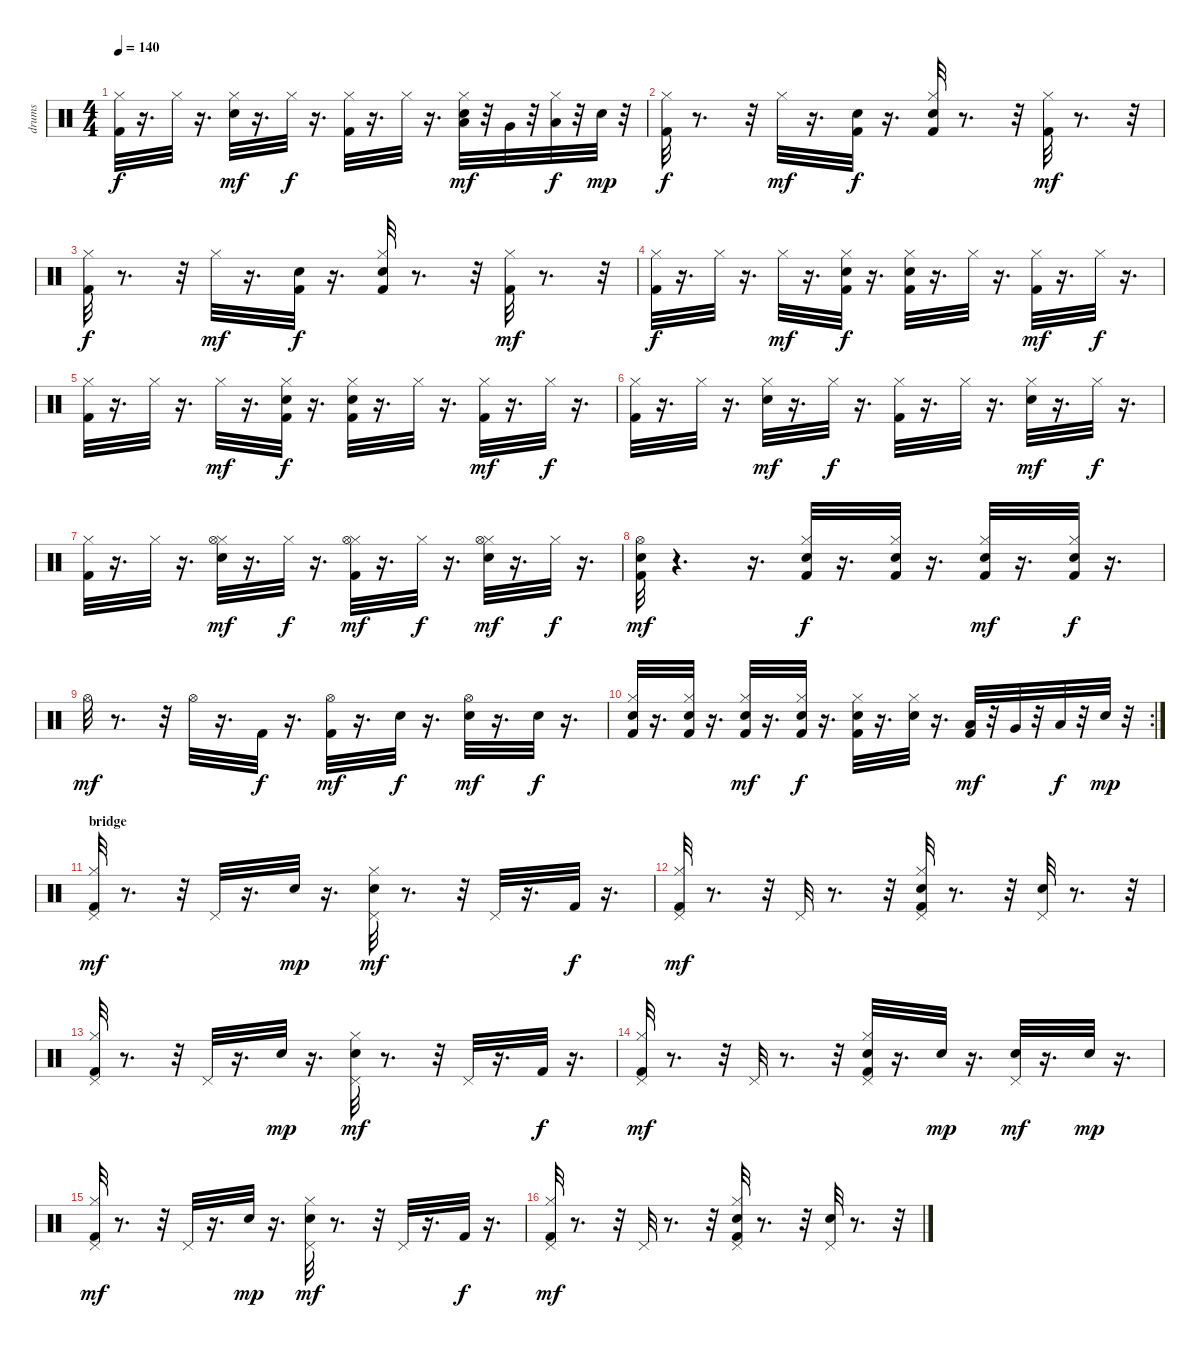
\track ("drums" "drums") {instrument percussion}
\staff {score}
\articulation defaults
\ts (4 4)
\tempo 140
\clef neutral
\ks c
("Kick (hit) 2" "Hi-Hat (closed)").32{dy f} r.16{d} "Hi-Hat (closed)".32 r.16{d} ("Snare (hit) 2" "Hi-Hat (closed)").32{dy mf} r.16{d} "Hi-Hat (closed)".32{dy f} r.16{d} ("Kick (hit) 2" "Hi-Hat (closed)").32 r.16{d} "Hi-Hat (closed)".32 r.16{d} ("Snare (hit) 2" "Hi-Hat (closed)" "Low Tom (hit)").32{dy mf} r.32 "Very Low Tom (hit)".32 r.32 ("Low Floor Tom (hit)" "Hi-Hat (closed)").32{dy f} r.32 "Electric Snare (hit)".32{dy mp} r.32 |
("Kick (hit) 2" "Hi-Hat (closed)").32{dy f} r.8{d} r.32 "Hi-Hat (closed)".32{dy mf} r.16{d} ("Kick (hit) 2" "Snare (hit) 2").32{dy f} r.16{d} ("Kick (hit) 2" "Snare (hit) 2" "Hi-Hat (closed)").32 r.8{d} r.32 ("Kick (hit) 2" "Hi-Hat (closed)").32{dy mf} r.8{d} r.32 |
("Kick (hit) 2" "Hi-Hat (closed)").32{dy f} r.8{d} r.32 "Hi-Hat (closed)".32{dy mf} r.16{d} ("Kick (hit) 2" "Snare (hit) 2").32{dy f} r.16{d} ("Kick (hit) 2" "Snare (hit) 2" "Hi-Hat (closed)").32 r.8{d} r.32 ("Kick (hit) 2" "Hi-Hat (closed)").32{dy mf} r.8{d} r.32 |
("Kick (hit) 2" "Hi-Hat (closed)").32{dy f} r.16{d} "Hi-Hat (closed)".32 r.16{d} "Hi-Hat (closed)".32{dy mf} r.16{d} ("Kick (hit) 2" "Snare (hit) 2" "Hi-Hat (closed)").32{dy f} r.16{d} ("Kick (hit) 2" "Snare (hit) 2" "Hi-Hat (closed)").32 r.16{d} "Hi-Hat (closed)".32 r.16{d} ("Kick (hit) 2" "Hi-Hat (closed)").32{dy mf} r.16{d} "Hi-Hat (closed)".32{dy f} r.16{d} |
("Kick (hit) 2" "Hi-Hat (closed)").32 r.16{d} "Hi-Hat (closed)".32 r.16{d} "Hi-Hat (closed)".32{dy mf} r.16{d} ("Kick (hit) 2" "Snare (hit) 2" "Hi-Hat (closed)").32{dy f} r.16{d} ("Kick (hit) 2" "Snare (hit) 2" "Hi-Hat (closed)").32 r.16{d} "Hi-Hat (closed)".32 r.16{d} ("Kick (hit) 2" "Hi-Hat (closed)").32{dy mf} r.16{d} "Hi-Hat (closed)".32{dy f} r.16{d} |
("Kick (hit) 2" "Hi-Hat (closed)").32 r.16{d} "Hi-Hat (closed)".32 r.16{d} ("Snare (hit) 2" "Hi-Hat (closed)").32{dy mf} r.16{d} "Hi-Hat (closed)".32{dy f} r.16{d} ("Kick (hit) 2" "Hi-Hat (closed)").32 r.16{d} "Hi-Hat (closed)".32 r.16{d} ("Snare (hit) 2" "Hi-Hat (closed)").32{dy mf} r.16{d} "Hi-Hat (closed)".32{dy f} r.16{d} |
("Kick (hit) 2" "Hi-Hat (closed)").32 r.16{d} "Hi-Hat (closed)".32 r.16{d} ("Snare (hit) 2" "Hi-Hat (closed)" "Hi-Hat (open)").32{dy mf} r.16{d} "Hi-Hat (closed)".32{dy f} r.16{d} ("Kick (hit) 2" "Hi-Hat (closed)" "Hi-Hat (open)").32{dy mf} r.16{d} "Hi-Hat (closed)".32{dy f} r.16{d} ("Snare (hit) 2" "Hi-Hat (closed)" "Hi-Hat (open)").32{dy mf} r.16{d} "Hi-Hat (closed)".32{dy f} r.16{d} |
("Kick (hit) 2" "Snare (hit) 2" "Hi-Hat (open)").32{dy mf} r.4{d} r.16{d} ("Kick (hit) 2" "Snare (hit) 2" "Hi-Hat (closed)").32{dy f} r.16{d} ("Kick (hit) 2" "Snare (hit) 2" "Hi-Hat (closed)").32 r.16{d} ("Kick (hit) 2" "Snare (hit) 2" "Hi-Hat (closed)").32{dy mf} r.16{d} ("Kick (hit) 2" "Snare (hit) 2" "Hi-Hat (closed)").32{dy f} r.16{d} |
"Hi-Hat (open)".32{dy mf} r.8{d} r.32 "Hi-Hat (open)".32 r.16{d} "Kick (hit) 2".32{dy f} r.16{d} ("Kick (hit) 2" "Hi-Hat (open)").32{dy mf} r.16{d} "Electric Snare (hit)".32{dy f} r.16{d} ("Electric Snare (hit)" "Hi-Hat (open)").32{dy mf} r.16{d} "Electric Snare (hit)".32{dy f} r.16{d} |
\rc 2
("Kick (hit) 2" "Snare (hit) 2" "Hi-Hat (closed)").32 r.16{d} ("Kick (hit) 2" "Snare (hit) 2" "Hi-Hat (closed)").32 r.16{d} ("Kick (hit) 2" "Snare (hit) 2" "Hi-Hat (closed)").32{dy mf} r.16{d} ("Kick (hit) 2" "Snare (hit) 2" "Hi-Hat (closed)").32{dy f} r.16{d} ("Kick (hit) 2" "Snare (hit) 2" "Hi-Hat (closed)").32 r.16{d} ("Snare (hit) 2" "Hi-Hat (closed)").32 r.16{d} ("Kick (hit) 2" "Low Tom (hit)").32{dy mf} r.32 "Very Low Tom (hit)".32 r.32 "Low Floor Tom (hit)".32{dy f} r.32 "Electric Snare (hit)".32{dy mp} r.32 |
\section ("" "bridge")
("Kick (hit) 2" "Hi-Hat (closed)" "Pedal Hi-Hat (hit)").32{dy mf} r.8{d} r.32 "Pedal Hi-Hat (hit)".32 r.16{d} "Snare (hit) 2".32{dy mp} r.16{d} ("Snare (hit) 2" "Hi-Hat (closed)" "Pedal Hi-Hat (hit)").32{dy mf} r.8{d} r.32 "Pedal Hi-Hat (hit)".32 r.16{d} "Kick (hit) 2".32{dy f} r.16{d} |
("Kick (hit) 2" "Hi-Hat (closed)" "Pedal Hi-Hat (hit)").32{dy mf} r.8{d} r.32 "Pedal Hi-Hat (hit)".32 r.8{d} r.32 ("Kick (hit) 2" "Snare (hit) 2" "Hi-Hat (closed)" "Pedal Hi-Hat (hit)").32 r.8{d} r.32 ("Snare (hit) 2" "Pedal Hi-Hat (hit)").32 r.8{d} r.32 |
("Kick (hit) 2" "Hi-Hat (closed)" "Pedal Hi-Hat (hit)").32 r.8{d} r.32 "Pedal Hi-Hat (hit)".32 r.16{d} "Snare (hit) 2".32{dy mp} r.16{d} ("Snare (hit) 2" "Hi-Hat (closed)" "Pedal Hi-Hat (hit)").32{dy mf} r.8{d} r.32 "Pedal Hi-Hat (hit)".32 r.16{d} "Kick (hit) 2".32{dy f} r.16{d} |
("Kick (hit) 2" "Hi-Hat (closed)" "Pedal Hi-Hat (hit)").32{dy mf} r.8{d} r.32 "Pedal Hi-Hat (hit)".32 r.8{d} r.32 ("Kick (hit) 2" "Snare (hit) 2" "Hi-Hat (closed)" "Pedal Hi-Hat (hit)").32 r.16{d} "Snare (hit) 2".32{dy mp} r.16{d} ("Snare (hit) 2" "Pedal Hi-Hat (hit)").32{dy mf} r.16{d} "Snare (hit) 2".32{dy mp} r.16{d} |
("Kick (hit) 2" "Hi-Hat (closed)" "Pedal Hi-Hat (hit)").32{dy mf} r.8{d} r.32 "Pedal Hi-Hat (hit)".32 r.16{d} "Snare (hit) 2".32{dy mp} r.16{d} ("Snare (hit) 2" "Hi-Hat (closed)" "Pedal Hi-Hat (hit)").32{dy mf} r.8{d} r.32 "Pedal Hi-Hat (hit)".32 r.16{d} "Kick (hit) 2".32{dy f} r.16{d} |
("Kick (hit) 2" "Hi-Hat (closed)" "Pedal Hi-Hat (hit)").32{dy mf} r.8{d} r.32 "Pedal Hi-Hat (hit)".32 r.8{d} r.32 ("Kick (hit) 2" "Snare (hit) 2" "Hi-Hat (closed)" "Pedal Hi-Hat (hit)").32 r.8{d} r.32 ("Snare (hit) 2" "Pedal Hi-Hat (hit)").32 r.8{d} r.32
